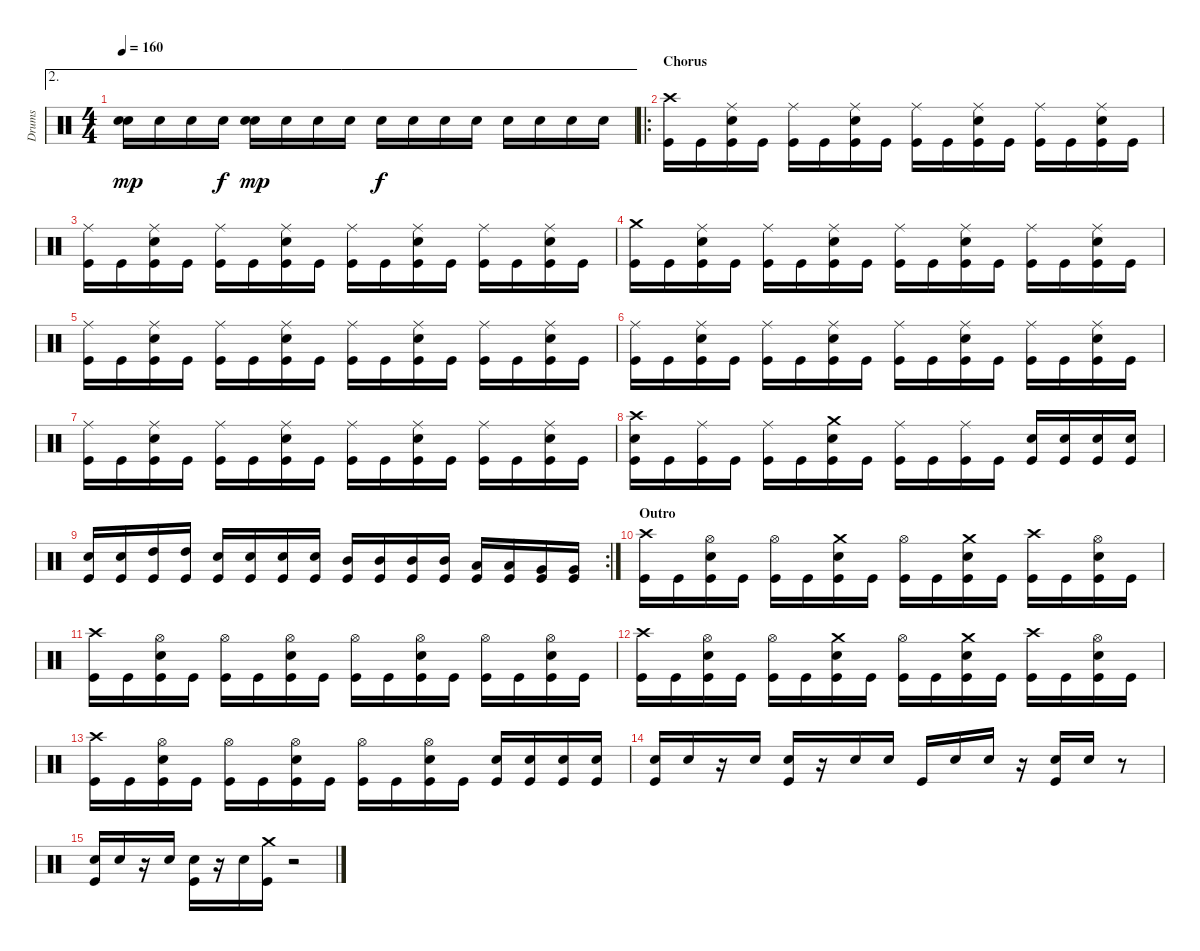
\track ("Drums" "Drums") {instrument percussion}
\staff {score}
\articulation defaults
\ae 2
\ts (4 4)
\tempo 160
\clef neutral
\ks c
("Electric Snare (hit)" "Snare (hit) 2").16{dy mp} "Snare (hit) 2".16 "Snare (hit) 2".16 "Snare (hit) 2".16{dy f} ("Electric Snare (hit)" "Snare (hit) 2").16{dy mp} "Snare (hit) 2".16 "Snare (hit) 2".16 "Snare (hit) 2".16 "Electric Snare (hit)".16{dy f} "Electric Snare (hit)".16 "Electric Snare (hit)".16 "Electric Snare (hit)".16 "Electric Snare (hit)".16 "Electric Snare (hit)".16 "Electric Snare (hit)".16 "Electric Snare (hit)".16 |
\ro
\section ("" "Chorus")
("Crash high (hit)" "Kick (hit)").16 "Kick (hit)".16 ("Ride (middle)" "Electric Snare (hit)" "Kick (hit)").16 "Kick (hit)".16 ("Ride (middle)" "Kick (hit)").16 "Kick (hit)".16 ("Ride (middle)" "Electric Snare (hit)" "Kick (hit)").16 "Kick (hit)".16 ("Ride (middle)" "Kick (hit)").16 "Kick (hit)".16 ("Ride (middle)" "Electric Snare (hit)" "Kick (hit)").16 "Kick (hit)".16 ("Ride (middle)" "Kick (hit)").16 "Kick (hit)".16 ("Ride (middle)" "Electric Snare (hit)" "Kick (hit)").16 "Kick (hit)".16 |
("Ride (middle)" "Kick (hit)").16 "Kick (hit)".16 ("Ride (middle)" "Electric Snare (hit)" "Kick (hit)").16 "Kick (hit)".16 ("Ride (middle)" "Kick (hit)").16 "Kick (hit)".16 ("Ride (middle)" "Electric Snare (hit)" "Kick (hit)").16 "Kick (hit)".16 ("Ride (middle)" "Kick (hit)").16 "Kick (hit)".16 ("Ride (middle)" "Electric Snare (hit)" "Kick (hit)").16 "Kick (hit)".16 ("Ride (middle)" "Kick (hit)").16 "Kick (hit)".16 ("Ride (middle)" "Electric Snare (hit)" "Kick (hit)").16 "Kick (hit)".16 |
("Crash medium (hit)" "Kick (hit)").16 "Kick (hit)".16 ("Ride (middle)" "Electric Snare (hit)" "Kick (hit)").16 "Kick (hit)".16 ("Ride (middle)" "Kick (hit)").16 "Kick (hit)".16 ("Ride (middle)" "Electric Snare (hit)" "Kick (hit)").16 "Kick (hit)".16 ("Ride (middle)" "Kick (hit)").16 "Kick (hit)".16 ("Ride (middle)" "Electric Snare (hit)" "Kick (hit)").16 "Kick (hit)".16 ("Ride (middle)" "Kick (hit)").16 "Kick (hit)".16 ("Ride (middle)" "Electric Snare (hit)" "Kick (hit)").16 "Kick (hit)".16 |
("Ride (middle)" "Kick (hit)").16 "Kick (hit)".16 ("Ride (middle)" "Electric Snare (hit)" "Kick (hit)").16 "Kick (hit)".16 ("Ride (middle)" "Kick (hit)").16 "Kick (hit)".16 ("Ride (middle)" "Electric Snare (hit)" "Kick (hit)").16 "Kick (hit)".16 ("Ride (middle)" "Kick (hit)").16 "Kick (hit)".16 ("Ride (middle)" "Electric Snare (hit)" "Kick (hit)").16 "Kick (hit)".16 ("Ride (middle)" "Kick (hit)").16 "Kick (hit)".16 ("Ride (middle)" "Electric Snare (hit)" "Kick (hit)").16 "Kick (hit)".16 |
("Ride (middle)" "Kick (hit)").16 "Kick (hit)".16 ("Ride (middle)" "Electric Snare (hit)" "Kick (hit)").16 "Kick (hit)".16 ("Ride (middle)" "Kick (hit)").16 "Kick (hit)".16 ("Ride (middle)" "Electric Snare (hit)" "Kick (hit)").16 "Kick (hit)".16 ("Ride (middle)" "Kick (hit)").16 "Kick (hit)".16 ("Ride (middle)" "Electric Snare (hit)" "Kick (hit)").16 "Kick (hit)".16 ("Ride (middle)" "Kick (hit)").16 "Kick (hit)".16 ("Ride (middle)" "Electric Snare (hit)" "Kick (hit)").16 "Kick (hit)".16 |
("Ride (middle)" "Kick (hit)").16 "Kick (hit)".16 ("Ride (middle)" "Electric Snare (hit)" "Kick (hit)").16 "Kick (hit)".16 ("Ride (middle)" "Kick (hit)").16 "Kick (hit)".16 ("Ride (middle)" "Electric Snare (hit)" "Kick (hit)").16 "Kick (hit)".16 ("Ride (middle)" "Kick (hit)").16 "Kick (hit)".16 ("Ride (middle)" "Electric Snare (hit)" "Kick (hit)").16 "Kick (hit)".16 ("Ride (middle)" "Kick (hit)").16 "Kick (hit)".16 ("Ride (middle)" "Electric Snare (hit)" "Kick (hit)").16 "Kick (hit)".16 |
("Crash high (hit)" "Electric Snare (hit)" "Kick (hit)").16 "Kick (hit)".16 ("Ride (middle)" "Kick (hit)").16 "Kick (hit)".16 ("Ride (middle)" "Kick (hit)").16 "Kick (hit)".16 ("Crash medium (hit)" "Electric Snare (hit)" "Kick (hit)").16 "Kick (hit)".16 ("Ride (middle)" "Kick (hit)").16 "Kick (hit)".16 ("Ride (middle)" "Kick (hit)").16 "Kick (hit)".16 ("Electric Snare (hit)" "Kick (hit)").16 ("Electric Snare (hit)" "Kick (hit)").16 ("Electric Snare (hit)" "Kick (hit)").16 ("Electric Snare (hit)" "Kick (hit)").16 |
\rc 2
("Electric Snare (hit)" "Kick (hit)").16 ("Electric Snare (hit)" "Kick (hit)").16 ("High Tom (hit)" "Kick (hit)").16 ("High Tom (hit)" "Kick (hit)").16 ("Electric Snare (hit)" "Kick (hit)").16 ("Electric Snare (hit)" "Kick (hit)").16 ("Electric Snare (hit)" "Kick (hit)").16 ("Electric Snare (hit)" "Kick (hit)").16 ("Mid Tom (hit)" "Kick (hit)").16 ("Mid Tom (hit)" "Kick (hit)").16 ("Mid Tom (hit)" "Kick (hit)").16 ("Mid Tom (hit)" "Kick (hit)").16 ("Low Tom (hit)" "Kick (hit)").16 ("Low Tom (hit)" "Kick (hit)").16 ("Very Low Tom (hit)" "Kick (hit)").16 ("Very Low Tom (hit)" "Kick (hit)").16 |
\section ("" "Outro")
("Crash high (hit)" "Kick (hit)").16 "Kick (hit)".16 ("Hi-Hat (open)" "Electric Snare (hit)" "Kick (hit)").16 "Kick (hit)".16 ("Hi-Hat (open)" "Kick (hit)").16 "Kick (hit)".16 ("Crash medium (hit)" "Electric Snare (hit)" "Kick (hit)").16 "Kick (hit)".16 ("Hi-Hat (open)" "Kick (hit)").16 "Kick (hit)".16 ("Crash medium (hit)" "Electric Snare (hit)" "Kick (hit)").16 "Kick (hit)".16 ("Crash high (hit)" "Kick (hit)").16 "Kick (hit)".16 ("Hi-Hat (open)" "Electric Snare (hit)" "Kick (hit)").16 "Kick (hit)".16 |
("Crash high (hit)" "Kick (hit)").16 "Kick (hit)".16 ("Hi-Hat (open)" "Electric Snare (hit)" "Kick (hit)").16 "Kick (hit)".16 ("Hi-Hat (open)" "Kick (hit)").16 "Kick (hit)".16 ("Hi-Hat (open)" "Electric Snare (hit)" "Kick (hit)").16 "Kick (hit)".16 ("Hi-Hat (open)" "Kick (hit)").16 "Kick (hit)".16 ("Hi-Hat (open)" "Electric Snare (hit)" "Kick (hit)").16 "Kick (hit)".16 ("Hi-Hat (open)" "Kick (hit)").16 "Kick (hit)".16 ("Hi-Hat (open)" "Electric Snare (hit)" "Kick (hit)").16 "Kick (hit)".16 |
("Crash high (hit)" "Kick (hit)").16 "Kick (hit)".16 ("Hi-Hat (open)" "Electric Snare (hit)" "Kick (hit)").16 "Kick (hit)".16 ("Hi-Hat (open)" "Kick (hit)").16 "Kick (hit)".16 ("Crash medium (hit)" "Electric Snare (hit)" "Kick (hit)").16 "Kick (hit)".16 ("Hi-Hat (open)" "Kick (hit)").16 "Kick (hit)".16 ("Crash medium (hit)" "Electric Snare (hit)" "Kick (hit)").16 "Kick (hit)".16 ("Crash high (hit)" "Kick (hit)").16 "Kick (hit)".16 ("Hi-Hat (open)" "Electric Snare (hit)" "Kick (hit)").16 "Kick (hit)".16 |
("Crash high (hit)" "Kick (hit)").16 "Kick (hit)".16 ("Hi-Hat (open)" "Electric Snare (hit)" "Kick (hit)").16 "Kick (hit)".16 ("Hi-Hat (open)" "Kick (hit)").16 "Kick (hit)".16 ("Hi-Hat (open)" "Electric Snare (hit)" "Kick (hit)").16 "Kick (hit)".16 ("Hi-Hat (open)" "Kick (hit)").16 "Kick (hit)".16 ("Hi-Hat (open)" "Electric Snare (hit)" "Kick (hit)").16 "Kick (hit)".16 ("Electric Snare (hit)" "Kick (hit)").16 ("Electric Snare (hit)" "Kick (hit)").16 ("Electric Snare (hit)" "Kick (hit)").16 ("Electric Snare (hit)" "Kick (hit)").16 |
("Electric Snare (hit)" "Kick (hit)").16 "Electric Snare (hit)".16 r.16 "Electric Snare (hit)".16 ("Electric Snare (hit)" "Kick (hit)").16 r.16 "Electric Snare (hit)".16 "Electric Snare (hit)".16 "Kick (hit)".16 "Electric Snare (hit)".16 "Electric Snare (hit)".16 r.16 ("Electric Snare (hit)" "Kick (hit)").16 "Electric Snare (hit)".16 r.8 |
("Electric Snare (hit)" "Kick (hit)").16 "Electric Snare (hit)".16 r.16 "Electric Snare (hit)".16 ("Electric Snare (hit)" "Kick (hit)").16 r.16 "Electric Snare (hit)".16 ("Crash medium (hit)" "Kick (hit)").16 r.2
